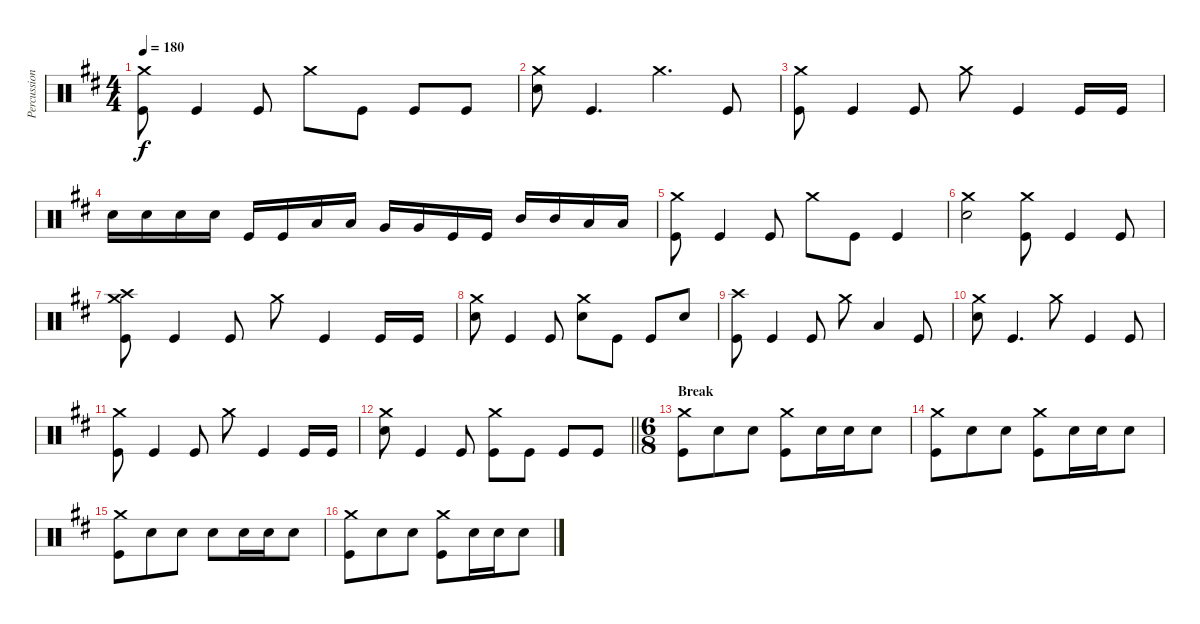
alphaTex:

\track ("Percussion" "Percussion") {instrument percussion}
\staff {score}
\articulation defaults
\ts (4 4)
\tempo 180
\clef neutral
\ks d
("Crash medium (hit)" "Kick (hit)").8{dy f} "Kick (hit)".4 "Kick (hit)".8 "Crash medium (hit)".8 "Kick (hit)".8 "Kick (hit)".8 "Kick (hit)".8 |
("Crash medium (hit)" "Electric Snare (hit)").8 "Kick (hit)".4{d} "Crash medium (hit)".4{d} "Kick (hit)".8 |
("Crash medium (hit)" "Kick (hit)").8 "Kick (hit)".4 "Kick (hit)".8 "Crash medium (hit)".8 "Kick (hit)".4 "Kick (hit)".16 "Kick (hit)".16 |
"Electric Snare (hit)".16 "Electric Snare (hit)".16 "Electric Snare (hit)".16 "Electric Snare (hit)".16 "Kick (hit)".16 "Kick (hit)".16 "Low Tom (hit)".16 "Low Tom (hit)".16 "Very Low Tom (hit)".16 "Very Low Tom (hit)".16 "Kick (hit)".16 "Kick (hit)".16 "Mid Tom (hit)".16 "Mid Tom (hit)".16 "Low Tom (hit)".16 "Low Tom (hit)".16 |
("Crash medium (hit)" "Kick (hit)").8 "Kick (hit)".4 "Kick (hit)".8 "Crash medium (hit)".8 "Kick (hit)".8 "Kick (hit)".4 |
("Crash medium (hit)" "Electric Snare (hit)").2 ("Crash medium (hit)" "Kick (hit)").8 "Kick (hit)".4 "Kick (hit)".8 |
("Crash high (hit)" "Crash medium (hit)" "Kick (hit)").8 "Kick (hit)".4 "Kick (hit)".8 "Crash medium (hit)".8 "Kick (hit)".4 "Kick (hit)".16 "Kick (hit)".16 |
("Crash medium (hit)" "Electric Snare (hit)").8 "Kick (hit)".4 "Kick (hit)".8 ("Crash medium (hit)" "Electric Snare (hit)").8 "Kick (hit)".8 "Kick (hit)".8 "Electric Snare (hit)".8 |
("Crash high (hit)" "Kick (hit)").8 "Kick (hit)".4 "Kick (hit)".8 "Crash medium (hit)".8 "Low Floor Tom (hit)".4 "Kick (hit)".8 |
("Crash medium (hit)" "Electric Snare (hit)").8 "Kick (hit)".4{d} "Crash medium (hit)".8 "Kick (hit)".4 "Kick (hit)".8 |
("Crash medium (hit)" "Kick (hit)").8 "Kick (hit)".4 "Kick (hit)".8 "Crash medium (hit)".8 "Kick (hit)".4 "Kick (hit)".16 "Kick (hit)".16 |
\barLineRight lightlight
("Crash medium (hit)" "Electric Snare (hit)").8 "Kick (hit)".4 "Kick (hit)".8 ("Crash medium (hit)" "Kick (hit)").8 "Kick (hit)".8 "Kick (hit)".8 "Kick (hit)".8 |
\ts (6 8)
\section ("" "Break")
("Crash medium (hit)" "Kick (hit)").8 "Electric Snare (hit)".8 "Electric Snare (hit)".8 ("Crash medium (hit)" "Kick (hit)").8 "Electric Snare (hit)".16 "Electric Snare (hit)".16 "Electric Snare (hit)".8 |
("Crash medium (hit)" "Kick (hit)").8 "Electric Snare (hit)".8 "Electric Snare (hit)".8 ("Crash medium (hit)" "Kick (hit)").8 "Electric Snare (hit)".16 "Electric Snare (hit)".16 "Electric Snare (hit)".8 |
("Crash medium (hit)" "Kick (hit)").8 "Electric Snare (hit)".8 "Electric Snare (hit)".8 "Electric Snare (hit)".8 "Electric Snare (hit)".16 "Electric Snare (hit)".16 "Electric Snare (hit)".8 |
("Crash medium (hit)" "Kick (hit)").8 "Electric Snare (hit)".8 "Electric Snare (hit)".8 ("Crash medium (hit)" "Kick (hit)").8 "Electric Snare (hit)".16 "Electric Snare (hit)".16 "Electric Snare (hit)".8
